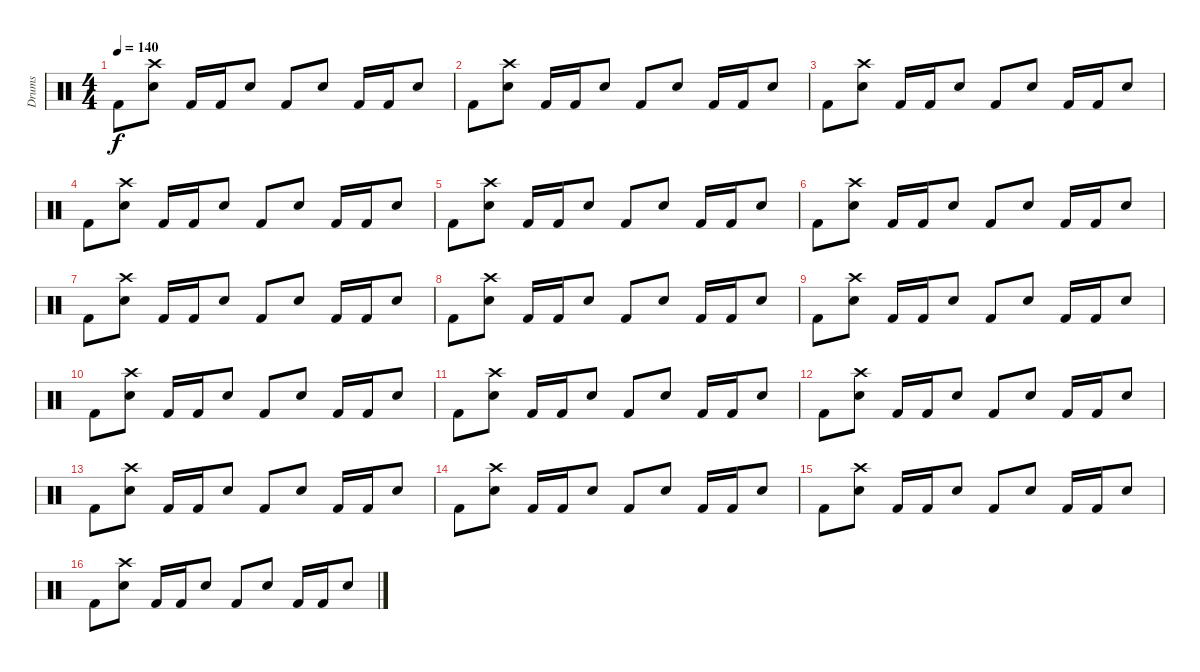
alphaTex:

\track ("Drums" "Drums") {instrument percussion}
\staff {score}
\articulation defaults
\ts (4 4)
\tempo 140
\clef neutral
\ks c "Kick (hit) 2".8{dy f}
("Snare (hit) 2" "Crash high (hit)").8 "Kick (hit) 2".16 "Kick (hit) 2".16 "Snare (hit) 2".8 "Kick (hit) 2".8 "Snare (hit) 2".8 "Kick (hit) 2".16 "Kick (hit) 2".16 "Snare (hit) 2".8 |
"Kick (hit) 2".8 ("Snare (hit) 2" "Crash high (hit)").8 "Kick (hit) 2".16 "Kick (hit) 2".16 "Snare (hit) 2".8 "Kick (hit) 2".8 "Snare (hit) 2".8 "Kick (hit) 2".16 "Kick (hit) 2".16 "Snare (hit) 2".8 |
"Kick (hit) 2".8 ("Snare (hit) 2" "Crash high (hit)").8 "Kick (hit) 2".16 "Kick (hit) 2".16 "Snare (hit) 2".8 "Kick (hit) 2".8 "Snare (hit) 2".8 "Kick (hit) 2".16 "Kick (hit) 2".16 "Snare (hit) 2".8 |
"Kick (hit) 2".8 ("Snare (hit) 2" "Crash high (hit)").8 "Kick (hit) 2".16 "Kick (hit) 2".16 "Snare (hit) 2".8 "Kick (hit) 2".8 "Snare (hit) 2".8 "Kick (hit) 2".16 "Kick (hit) 2".16 "Snare (hit) 2".8 |
"Kick (hit) 2".8 ("Snare (hit) 2" "Crash high (hit)").8 "Kick (hit) 2".16 "Kick (hit) 2".16 "Snare (hit) 2".8 "Kick (hit) 2".8 "Snare (hit) 2".8 "Kick (hit) 2".16 "Kick (hit) 2".16 "Snare (hit) 2".8 |
"Kick (hit) 2".8 ("Snare (hit) 2" "Crash high (hit)").8 "Kick (hit) 2".16 "Kick (hit) 2".16 "Snare (hit) 2".8 "Kick (hit) 2".8 "Snare (hit) 2".8 "Kick (hit) 2".16 "Kick (hit) 2".16 "Snare (hit) 2".8 |
"Kick (hit) 2".8 ("Snare (hit) 2" "Crash high (hit)").8 "Kick (hit) 2".16 "Kick (hit) 2".16 "Snare (hit) 2".8 "Kick (hit) 2".8 "Snare (hit) 2".8 "Kick (hit) 2".16 "Kick (hit) 2".16 "Snare (hit) 2".8 |
"Kick (hit) 2".8 ("Snare (hit) 2" "Crash high (hit)").8 "Kick (hit) 2".16 "Kick (hit) 2".16 "Snare (hit) 2".8 "Kick (hit) 2".8 "Snare (hit) 2".8 "Kick (hit) 2".16 "Kick (hit) 2".16 "Snare (hit) 2".8 |
"Kick (hit) 2".8 ("Snare (hit) 2" "Crash high (hit)").8 "Kick (hit) 2".16 "Kick (hit) 2".16 "Snare (hit) 2".8 "Kick (hit) 2".8 "Snare (hit) 2".8 "Kick (hit) 2".16 "Kick (hit) 2".16 "Snare (hit) 2".8 |
"Kick (hit) 2".8 ("Snare (hit) 2" "Crash high (hit)").8 "Kick (hit) 2".16 "Kick (hit) 2".16 "Snare (hit) 2".8 "Kick (hit) 2".8 "Snare (hit) 2".8 "Kick (hit) 2".16 "Kick (hit) 2".16 "Snare (hit) 2".8 |
"Kick (hit) 2".8 ("Snare (hit) 2" "Crash high (hit)").8 "Kick (hit) 2".16 "Kick (hit) 2".16 "Snare (hit) 2".8 "Kick (hit) 2".8 "Snare (hit) 2".8 "Kick (hit) 2".16 "Kick (hit) 2".16 "Snare (hit) 2".8 |
"Kick (hit) 2".8 ("Snare (hit) 2" "Crash high (hit)").8 "Kick (hit) 2".16 "Kick (hit) 2".16 "Snare (hit) 2".8 "Kick (hit) 2".8 "Snare (hit) 2".8 "Kick (hit) 2".16 "Kick (hit) 2".16 "Snare (hit) 2".8 |
"Kick (hit) 2".8 ("Snare (hit) 2" "Crash high (hit)").8 "Kick (hit) 2".16 "Kick (hit) 2".16 "Snare (hit) 2".8 "Kick (hit) 2".8 "Snare (hit) 2".8 "Kick (hit) 2".16 "Kick (hit) 2".16 "Snare (hit) 2".8 |
"Kick (hit) 2".8 ("Snare (hit) 2" "Crash high (hit)").8 "Kick (hit) 2".16 "Kick (hit) 2".16 "Snare (hit) 2".8 "Kick (hit) 2".8 "Snare (hit) 2".8 "Kick (hit) 2".16 "Kick (hit) 2".16 "Snare (hit) 2".8 |
"Kick (hit) 2".8 ("Snare (hit) 2" "Crash high (hit)").8 "Kick (hit) 2".16 "Kick (hit) 2".16 "Snare (hit) 2".8 "Kick (hit) 2".8 "Snare (hit) 2".8 "Kick (hit) 2".16 "Kick (hit) 2".16 "Snare (hit) 2".8 |
"Kick (hit) 2".8 ("Snare (hit) 2" "Crash high (hit)").8 "Kick (hit) 2".16 "Kick (hit) 2".16 "Snare (hit) 2".8 "Kick (hit) 2".8 "Snare (hit) 2".8 "Kick (hit) 2".16 "Kick (hit) 2".16 "Snare (hit) 2".8
